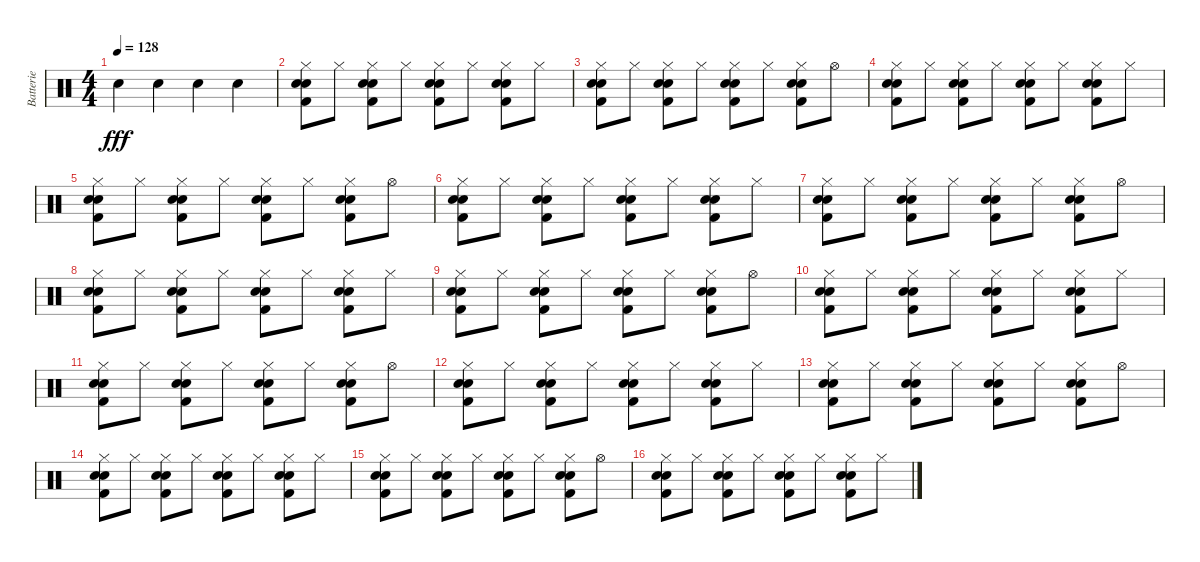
\track ("Batterie" "Batterie") {instrument percussion}
\staff {score}
\articulation defaults
\ts (4 4)
\tempo 128
\clef neutral
\ks c "Electric Snare (hit)".4{dy fff} "Electric Snare (hit)".4 "Electric Snare (hit)".4 "Snare (hit) 2".4
|
("Snare (hit) 2" "Kick (hit) 2" "Hi-Hat (closed)" "Electric Snare (hit)").8 "Hi-Hat (closed)".8 ("Kick (hit) 2" "Snare (hit) 2" "Hi-Hat (closed)" "Electric Snare (hit)").8 "Hi-Hat (closed)".8 ("Snare (hit) 2" "Kick (hit) 2" "Hi-Hat (closed)" "Electric Snare (hit)").8 "Hi-Hat (closed)".8 ("Snare (hit) 2" "Kick (hit) 2" "Hi-Hat (closed)" "Electric Snare (hit)").8 "Hi-Hat (closed)".8 |
("Snare (hit) 2" "Kick (hit) 2" "Hi-Hat (closed)" "Electric Snare (hit)").8 "Hi-Hat (closed)".8 ("Snare (hit) 2" "Kick (hit) 2" "Hi-Hat (closed)" "Electric Snare (hit)").8 "Hi-Hat (closed)".8 ("Kick (hit) 2" "Snare (hit) 2" "Hi-Hat (closed)" "Electric Snare (hit)").8 "Hi-Hat (closed)".8 ("Kick (hit) 2" "Snare (hit) 2" "Hi-Hat (closed)" "Electric Snare (hit)").8 "Hi-Hat (open)".8 |
("Snare (hit) 2" "Kick (hit) 2" "Hi-Hat (closed)" "Electric Snare (hit)").8 "Hi-Hat (closed)".8 ("Kick (hit) 2" "Snare (hit) 2" "Hi-Hat (closed)" "Electric Snare (hit)").8 "Hi-Hat (closed)".8 ("Snare (hit) 2" "Kick (hit) 2" "Hi-Hat (closed)" "Electric Snare (hit)").8 "Hi-Hat (closed)".8 ("Snare (hit) 2" "Kick (hit) 2" "Hi-Hat (closed)" "Electric Snare (hit)").8 "Hi-Hat (closed)".8 |
("Snare (hit) 2" "Kick (hit) 2" "Hi-Hat (closed)" "Electric Snare (hit)").8 "Hi-Hat (closed)".8 ("Snare (hit) 2" "Kick (hit) 2" "Hi-Hat (closed)" "Electric Snare (hit)").8 "Hi-Hat (closed)".8 ("Kick (hit) 2" "Snare (hit) 2" "Hi-Hat (closed)" "Electric Snare (hit)").8 "Hi-Hat (closed)".8 ("Kick (hit) 2" "Snare (hit) 2" "Hi-Hat (closed)" "Electric Snare (hit)").8 "Hi-Hat (open)".8 |
("Snare (hit) 2" "Kick (hit) 2" "Hi-Hat (closed)" "Electric Snare (hit)").8 "Hi-Hat (closed)".8 ("Kick (hit) 2" "Snare (hit) 2" "Hi-Hat (closed)" "Electric Snare (hit)").8 "Hi-Hat (closed)".8 ("Snare (hit) 2" "Kick (hit) 2" "Hi-Hat (closed)" "Electric Snare (hit)").8 "Hi-Hat (closed)".8 ("Snare (hit) 2" "Kick (hit) 2" "Hi-Hat (closed)" "Electric Snare (hit)").8 "Hi-Hat (closed)".8 |
("Snare (hit) 2" "Kick (hit) 2" "Hi-Hat (closed)" "Electric Snare (hit)").8 "Hi-Hat (closed)".8 ("Snare (hit) 2" "Kick (hit) 2" "Hi-Hat (closed)" "Electric Snare (hit)").8 "Hi-Hat (closed)".8 ("Kick (hit) 2" "Snare (hit) 2" "Hi-Hat (closed)" "Electric Snare (hit)").8 "Hi-Hat (closed)".8 ("Kick (hit) 2" "Snare (hit) 2" "Hi-Hat (closed)" "Electric Snare (hit)").8 "Hi-Hat (open)".8 |
("Snare (hit) 2" "Kick (hit) 2" "Hi-Hat (closed)" "Electric Snare (hit)").8 "Hi-Hat (closed)".8 ("Kick (hit) 2" "Snare (hit) 2" "Hi-Hat (closed)" "Electric Snare (hit)").8 "Hi-Hat (closed)".8 ("Snare (hit) 2" "Kick (hit) 2" "Hi-Hat (closed)" "Electric Snare (hit)").8 "Hi-Hat (closed)".8 ("Snare (hit) 2" "Kick (hit) 2" "Hi-Hat (closed)" "Electric Snare (hit)").8 "Hi-Hat (closed)".8 |
("Snare (hit) 2" "Kick (hit) 2" "Hi-Hat (closed)" "Electric Snare (hit)").8 "Hi-Hat (closed)".8 ("Snare (hit) 2" "Kick (hit) 2" "Hi-Hat (closed)" "Electric Snare (hit)").8 "Hi-Hat (closed)".8 ("Kick (hit) 2" "Snare (hit) 2" "Hi-Hat (closed)" "Electric Snare (hit)").8 "Hi-Hat (closed)".8 ("Kick (hit) 2" "Snare (hit) 2" "Hi-Hat (closed)" "Electric Snare (hit)").8 "Hi-Hat (open)".8 |
("Snare (hit) 2" "Kick (hit) 2" "Hi-Hat (closed)" "Electric Snare (hit)").8 "Hi-Hat (closed)".8 ("Kick (hit) 2" "Snare (hit) 2" "Hi-Hat (closed)" "Electric Snare (hit)").8 "Hi-Hat (closed)".8 ("Snare (hit) 2" "Kick (hit) 2" "Hi-Hat (closed)" "Electric Snare (hit)").8 "Hi-Hat (closed)".8 ("Snare (hit) 2" "Kick (hit) 2" "Hi-Hat (closed)" "Electric Snare (hit)").8 "Hi-Hat (closed)".8 |
("Snare (hit) 2" "Kick (hit) 2" "Hi-Hat (closed)" "Electric Snare (hit)").8 "Hi-Hat (closed)".8 ("Snare (hit) 2" "Kick (hit) 2" "Hi-Hat (closed)" "Electric Snare (hit)").8 "Hi-Hat (closed)".8 ("Kick (hit) 2" "Snare (hit) 2" "Hi-Hat (closed)" "Electric Snare (hit)").8 "Hi-Hat (closed)".8 ("Kick (hit) 2" "Snare (hit) 2" "Hi-Hat (closed)" "Electric Snare (hit)").8 "Hi-Hat (open)".8 |
("Snare (hit) 2" "Kick (hit) 2" "Hi-Hat (closed)" "Electric Snare (hit)").8 "Hi-Hat (closed)".8 ("Kick (hit) 2" "Snare (hit) 2" "Hi-Hat (closed)" "Electric Snare (hit)").8 "Hi-Hat (closed)".8 ("Snare (hit) 2" "Kick (hit) 2" "Hi-Hat (closed)" "Electric Snare (hit)").8 "Hi-Hat (closed)".8 ("Snare (hit) 2" "Kick (hit) 2" "Hi-Hat (closed)" "Electric Snare (hit)").8 "Hi-Hat (closed)".8 |
("Snare (hit) 2" "Kick (hit) 2" "Hi-Hat (closed)" "Electric Snare (hit)").8 "Hi-Hat (closed)".8 ("Snare (hit) 2" "Kick (hit) 2" "Hi-Hat (closed)" "Electric Snare (hit)").8 "Hi-Hat (closed)".8 ("Kick (hit) 2" "Snare (hit) 2" "Hi-Hat (closed)" "Electric Snare (hit)").8 "Hi-Hat (closed)".8 ("Kick (hit) 2" "Snare (hit) 2" "Hi-Hat (closed)" "Electric Snare (hit)").8 "Hi-Hat (open)".8 |
("Snare (hit) 2" "Kick (hit) 2" "Hi-Hat (closed)" "Electric Snare (hit)").8 "Hi-Hat (closed)".8 ("Kick (hit) 2" "Snare (hit) 2" "Hi-Hat (closed)" "Electric Snare (hit)").8 "Hi-Hat (closed)".8 ("Snare (hit) 2" "Kick (hit) 2" "Hi-Hat (closed)" "Electric Snare (hit)").8 "Hi-Hat (closed)".8 ("Snare (hit) 2" "Kick (hit) 2" "Hi-Hat (closed)" "Electric Snare (hit)").8 "Hi-Hat (closed)".8 |
("Snare (hit) 2" "Kick (hit) 2" "Hi-Hat (closed)" "Electric Snare (hit)").8 "Hi-Hat (closed)".8 ("Snare (hit) 2" "Kick (hit) 2" "Hi-Hat (closed)" "Electric Snare (hit)").8 "Hi-Hat (closed)".8 ("Kick (hit) 2" "Snare (hit) 2" "Hi-Hat (closed)" "Electric Snare (hit)").8 "Hi-Hat (closed)".8 ("Kick (hit) 2" "Snare (hit) 2" "Hi-Hat (closed)" "Electric Snare (hit)").8 "Hi-Hat (open)".8 |
("Snare (hit) 2" "Kick (hit) 2" "Hi-Hat (closed)" "Electric Snare (hit)").8 "Hi-Hat (closed)".8 ("Kick (hit) 2" "Snare (hit) 2" "Hi-Hat (closed)" "Electric Snare (hit)").8 "Hi-Hat (closed)".8 ("Snare (hit) 2" "Kick (hit) 2" "Hi-Hat (closed)" "Electric Snare (hit)").8 "Hi-Hat (closed)".8 ("Snare (hit) 2" "Kick (hit) 2" "Hi-Hat (closed)" "Electric Snare (hit)").8 "Hi-Hat (closed)".8
